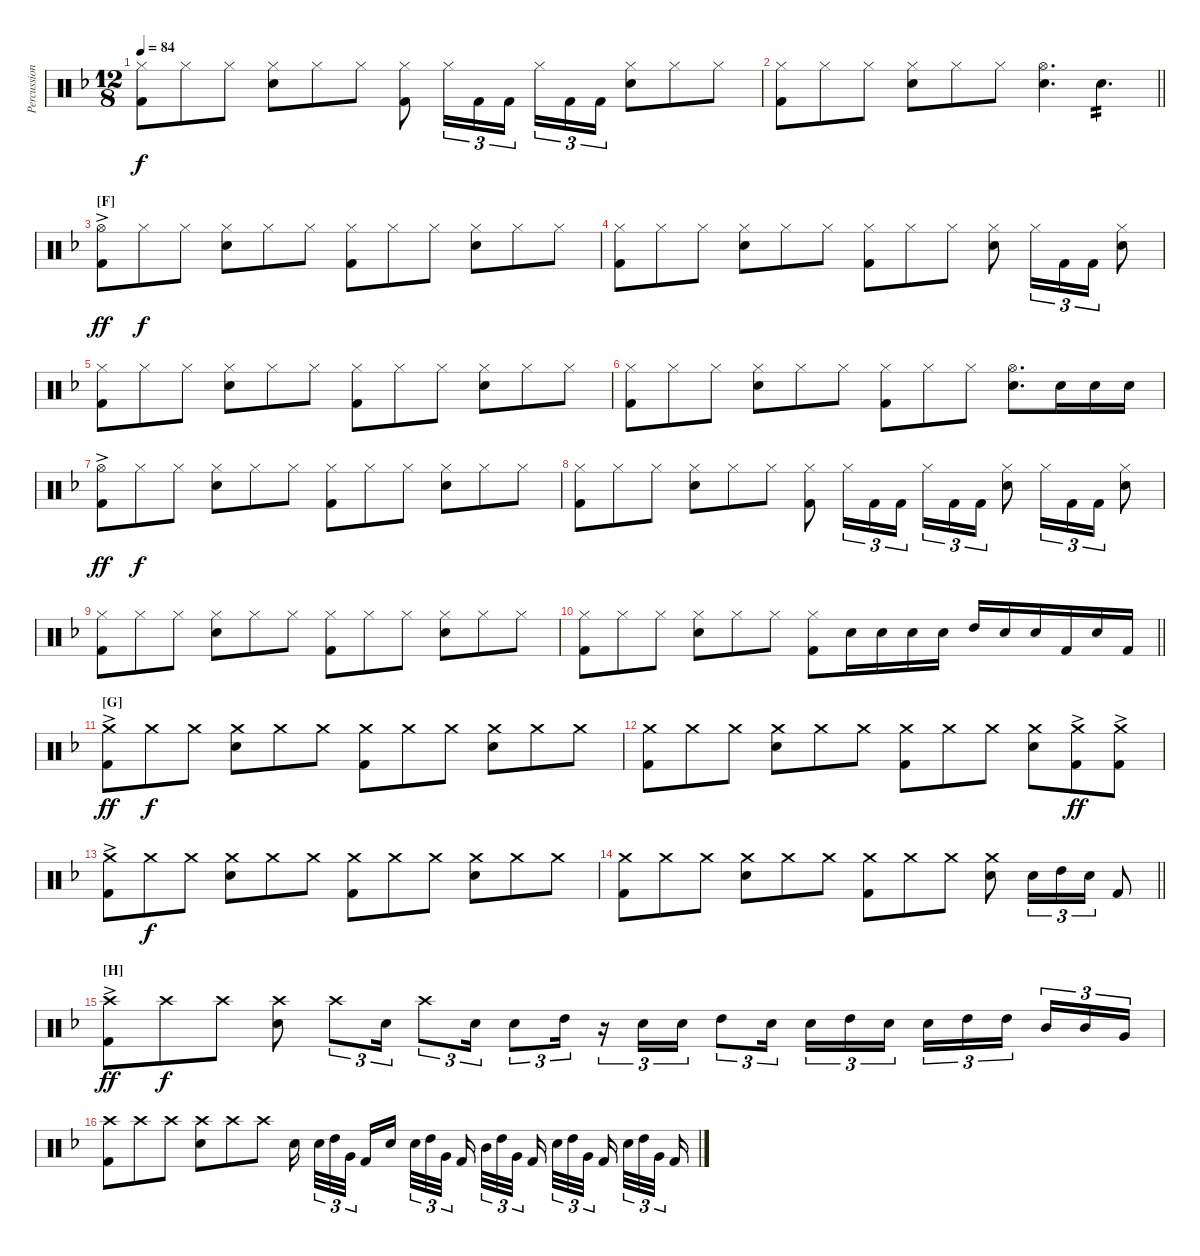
\track ("Percussions" "Percussion") {instrument percussion}
\staff {score}
\articulation defaults
\ts (12 8)
\tempo 84
\clef neutral
\ks dminor
("Hi-Hat (closed)" "Kick (hit) 2").8{dy f} "Hi-Hat (closed)".8 "Hi-Hat (closed)".8 ("Hi-Hat (closed)" "Electric Snare (hit)").8 "Hi-Hat (closed)".8 "Hi-Hat (closed)".8 ("Hi-Hat (closed)" "Kick (hit) 2").8 "Hi-Hat (closed)".16{tu (3 2)} "Kick (hit) 2".16{tu (3 2)} "Kick (hit) 2".16{tu (3 2) beam splitsecondary} "Hi-Hat (closed)".16{tu (3 2)} "Kick (hit) 2".16{tu (3 2)} "Kick (hit) 2".16{tu (3 2)} ("Hi-Hat (closed)" "Electric Snare (hit)").8 "Hi-Hat (closed)".8 "Hi-Hat (closed)".8 |
\barLineRight lightlight
("Hi-Hat (closed)" "Kick (hit) 2").8 "Hi-Hat (closed)".8 "Hi-Hat (closed)".8 ("Hi-Hat (closed)" "Electric Snare (hit)").8 "Hi-Hat (closed)".8 "Hi-Hat (closed)".8 ("Hi-Hat (open)" "Electric Snare (hit)").4{d} "Electric Snare (hit)".4{d tp 2} |
\section ("" "[F]")
("Hi-Hat (open)"{ac} "Kick (hit) 2").8{dy ff} "Hi-Hat (closed)".8{dy f} "Hi-Hat (closed)".8 ("Hi-Hat (closed)" "Electric Snare (hit)").8 "Hi-Hat (closed)".8 "Hi-Hat (closed)".8 ("Hi-Hat (closed)" "Kick (hit) 2").8 "Hi-Hat (closed)".8 "Hi-Hat (closed)".8 ("Hi-Hat (closed)" "Electric Snare (hit)").8 "Hi-Hat (closed)".8 "Hi-Hat (closed)".8 |
("Hi-Hat (closed)" "Kick (hit) 2").8 "Hi-Hat (closed)".8 "Hi-Hat (closed)".8 ("Hi-Hat (closed)" "Electric Snare (hit)").8 "Hi-Hat (closed)".8 "Hi-Hat (closed)".8 ("Hi-Hat (closed)" "Kick (hit) 2").8 "Hi-Hat (closed)".8 "Hi-Hat (closed)".8 ("Hi-Hat (closed)" "Electric Snare (hit)").8 "Hi-Hat (closed)".16{tu (3 2)} "Kick (hit) 2".16{tu (3 2)} "Kick (hit) 2".16{tu (3 2)} ("Hi-Hat (closed)" "Electric Snare (hit)").8 |
("Hi-Hat (closed)" "Kick (hit) 2").8 "Hi-Hat (closed)".8 "Hi-Hat (closed)".8 ("Hi-Hat (closed)" "Electric Snare (hit)").8 "Hi-Hat (closed)".8 "Hi-Hat (closed)".8 ("Hi-Hat (closed)" "Kick (hit) 2").8 "Hi-Hat (closed)".8 "Hi-Hat (closed)".8 ("Hi-Hat (closed)" "Electric Snare (hit)").8 "Hi-Hat (closed)".8 "Hi-Hat (closed)".8 |
("Hi-Hat (closed)" "Kick (hit) 2").8 "Hi-Hat (closed)".8 "Hi-Hat (closed)".8 ("Hi-Hat (closed)" "Electric Snare (hit)").8 "Hi-Hat (closed)".8 "Hi-Hat (closed)".8 ("Hi-Hat (closed)" "Kick (hit) 2").8 "Hi-Hat (closed)".8 "Hi-Hat (closed)".8 ("Hi-Hat (open)" "Electric Snare (hit)").8{d} "Electric Snare (hit)".16 "Electric Snare (hit)".16 "Electric Snare (hit)".16 |
("Hi-Hat (open)"{ac} "Kick (hit) 2").8{dy ff} "Hi-Hat (closed)".8{dy f} "Hi-Hat (closed)".8 ("Hi-Hat (closed)" "Electric Snare (hit)").8 "Hi-Hat (closed)".8 "Hi-Hat (closed)".8 ("Hi-Hat (closed)" "Kick (hit) 2").8 "Hi-Hat (closed)".8 "Hi-Hat (closed)".8 ("Hi-Hat (closed)" "Electric Snare (hit)").8 "Hi-Hat (closed)".8 "Hi-Hat (closed)".8 |
("Hi-Hat (closed)" "Kick (hit) 2").8 "Hi-Hat (closed)".8 "Hi-Hat (closed)".8 ("Hi-Hat (closed)" "Electric Snare (hit)").8 "Hi-Hat (closed)".8 "Hi-Hat (closed)".8 ("Hi-Hat (closed)" "Kick (hit) 2").8 "Hi-Hat (closed)".16{tu (3 2)} "Kick (hit) 2".16{tu (3 2)} "Kick (hit) 2".16{tu (3 2) beam splitsecondary} "Hi-Hat (closed)".16{tu (3 2)} "Kick (hit) 2".16{tu (3 2)} "Kick (hit) 2".16{tu (3 2)} ("Hi-Hat (closed)" "Electric Snare (hit)").8 "Hi-Hat (closed)".16{tu (3 2)} "Kick (hit) 2".16{tu (3 2)} "Kick (hit) 2".16{tu (3 2)} ("Hi-Hat (closed)" "Electric Snare (hit)").8 |
("Hi-Hat (closed)" "Kick (hit) 2").8 "Hi-Hat (closed)".8 "Hi-Hat (closed)".8 ("Hi-Hat (closed)" "Electric Snare (hit)").8 "Hi-Hat (closed)".8 "Hi-Hat (closed)".8 ("Hi-Hat (closed)" "Kick (hit) 2").8 "Hi-Hat (closed)".8 "Hi-Hat (closed)".8 ("Hi-Hat (closed)" "Electric Snare (hit)").8 "Hi-Hat (closed)".8 "Hi-Hat (closed)".8 |
\barLineRight lightlight
("Hi-Hat (closed)" "Kick (hit) 2").8 "Hi-Hat (closed)".8 "Hi-Hat (closed)".8 ("Hi-Hat (closed)" "Electric Snare (hit)").8 "Hi-Hat (closed)".8 "Hi-Hat (closed)".8 ("Hi-Hat (closed)" "Kick (hit) 2").8 "Electric Snare (hit)".16 "Electric Snare (hit)".16 "Electric Snare (hit)".16 "Electric Snare (hit)".16 "High Tom (hit)".16 "Electric Snare (hit)".16 "Electric Snare (hit)".16 "Kick (hit) 2".16 "Electric Snare (hit)".16 "Kick (hit) 2".16 |
\section ("" "[G]")
("Crash medium (hit)"{ac} "Kick (hit) 2").8{dy ff} "Crash medium (hit)".8{dy f} "Crash medium (hit)".8 ("Crash medium (hit)" "Electric Snare (hit)").8 "Crash medium (hit)".8 "Crash medium (hit)".8 ("Crash medium (hit)" "Kick (hit) 2").8 "Crash medium (hit)".8 "Crash medium (hit)".8 ("Crash medium (hit)" "Electric Snare (hit)").8 "Crash medium (hit)".8 "Crash medium (hit)".8 |
("Crash medium (hit)" "Kick (hit) 2").8 "Crash medium (hit)".8 "Crash medium (hit)".8 ("Crash medium (hit)" "Electric Snare (hit)").8 "Crash medium (hit)".8 "Crash medium (hit)".8 ("Crash medium (hit)" "Kick (hit) 2").8 "Crash medium (hit)".8 "Crash medium (hit)".8 ("Crash medium (hit)" "Electric Snare (hit)").8 ("Crash medium (hit)" "Kick (hit) 2"{ac}).8{dy ff} ("Crash medium (hit)" "Kick (hit) 2"{ac}).8 |
("Crash medium (hit)"{ac} "Kick (hit) 2").8 "Crash medium (hit)".8{dy f} "Crash medium (hit)".8 ("Crash medium (hit)" "Electric Snare (hit)").8 "Crash medium (hit)".8 "Crash medium (hit)".8 ("Crash medium (hit)" "Kick (hit) 2").8 "Crash medium (hit)".8 "Crash medium (hit)".8 ("Crash medium (hit)" "Electric Snare (hit)").8 "Crash medium (hit)".8 "Crash medium (hit)".8 |
\barLineRight lightlight
("Crash medium (hit)" "Kick (hit) 2").8 "Crash medium (hit)".8 "Crash medium (hit)".8 ("Crash medium (hit)" "Electric Snare (hit)").8 "Crash medium (hit)".8 "Crash medium (hit)".8 ("Crash medium (hit)" "Kick (hit) 2").8 "Crash medium (hit)".8 "Crash medium (hit)".8 ("Crash medium (hit)" "Electric Snare (hit)").8 "Electric Snare (hit)".16{tu (3 2)} "High Tom (hit)".16{tu (3 2)} "Electric Snare (hit)".16{tu (3 2)} "Kick (hit) 2".8 |
\section ("" "[H]")
("Crash high (hit)"{ac} "Kick (hit) 2").8{dy ff} "Crash high (hit)".8{dy f} "Crash high (hit)".8 ("Crash high (hit)" "Electric Snare (hit)").8 "Crash high (hit)".8{tu (3 2)} "Electric Snare (hit)".16{tu (3 2)} "Crash high (hit)".8{tu (3 2)} "Electric Snare (hit)".16{tu (3 2)} "Electric Snare (hit)".8{tu (3 2)} "High Tom (hit)".16{tu (3 2)} r.16{tu (3 2)} "Electric Snare (hit)".16{tu (3 2)} "Electric Snare (hit)".16{tu (3 2)} "High Tom (hit)".8{tu (3 2)} "Electric Snare (hit)".16{tu (3 2)} "Electric Snare (hit)".16{tu (3 2)} "High Tom (hit)".16{tu (3 2)} "Electric Snare (hit)".16{tu (3 2) beam splitsecondary} "Electric Snare (hit)".16{tu (3 2)} "High Tom (hit)".16{tu (3 2)} "High Tom (hit)".16{tu (3 2) beam splitsecondary} "Mid Tom (hit)".16{tu (3 2)} "Mid Tom (hit)".16{tu (3 2)} "Very Low Tom (hit)".16{tu (3 2)} |
("Crash high (hit)" "Kick (hit) 2").8 "Crash high (hit)".8 "Crash high (hit)".8 ("Crash high (hit)" "Electric Snare (hit)").8 "Crash high (hit)".8 "Crash high (hit)".8 "Electric Snare (hit)".16{beam splitsecondary} "Electric Snare (hit)".32{tu (3 2)} "High Tom (hit)".32{tu (3 2)} "Very Low Tom (hit)".32{tu (3 2) beam splitsecondary} "Kick (hit) 2".16 "Electric Snare (hit)".16{beam splitsecondary} "Electric Snare (hit)".32{tu (3 2)} "High Tom (hit)".32{tu (3 2)} "Very Low Tom (hit)".32{tu (3 2) beam splitsecondary} "Kick (hit) 2".16 "Mid Tom (hit)".32{tu (3 2)} "High Tom (hit)".32{tu (3 2)} "Very Low Tom (hit)".32{tu (3 2) beam splitsecondary} "Kick (hit) 2".16{beam splitsecondary} "Electric Snare (hit)".32{tu (3 2)} "High Tom (hit)".32{tu (3 2)} "Very Low Tom (hit)".32{tu (3 2) beam splitsecondary} "Kick (hit) 2".16{beam splitsecondary} "Electric Snare (hit)".32{tu (3 2)} "High Tom (hit)".32{tu (3 2)} "Very Low Tom (hit)".32{tu (3 2) beam splitsecondary} "Kick (hit) 2".16
